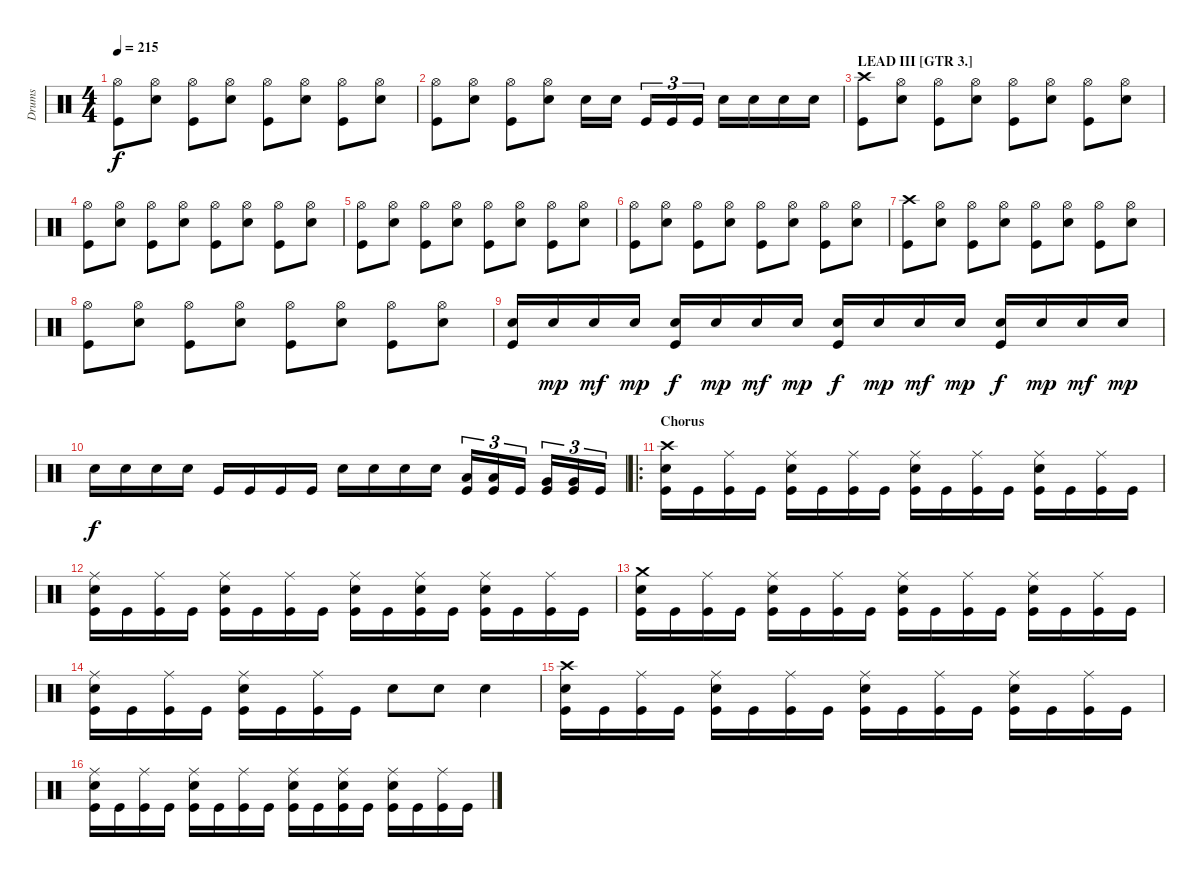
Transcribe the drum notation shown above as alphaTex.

\track ("Drums" "Drums") {instrument percussion}
\staff {score}
\articulation defaults
\ts (4 4)
\tempo 215
\clef neutral
\ks c
("Hi-Hat (open)" "Kick (hit)").8{dy f} ("Hi-Hat (open)" "Electric Snare (hit)").8 ("Hi-Hat (open)" "Kick (hit)").8 ("Hi-Hat (open)" "Electric Snare (hit)").8 ("Hi-Hat (open)" "Kick (hit)").8 ("Hi-Hat (open)" "Electric Snare (hit)").8 ("Hi-Hat (open)" "Kick (hit)").8 ("Hi-Hat (open)" "Electric Snare (hit)").8 |
("Hi-Hat (open)" "Kick (hit)").8 ("Hi-Hat (open)" "Electric Snare (hit)").8 ("Hi-Hat (open)" "Kick (hit)").8 ("Hi-Hat (open)" "Electric Snare (hit)").8 "Electric Snare (hit)".16 "Electric Snare (hit)".16 "Kick (hit)".16{tu (3 2)} "Kick (hit)".16{tu (3 2)} "Kick (hit)".16{tu (3 2)} "Electric Snare (hit)".16 "Electric Snare (hit)".16 "Electric Snare (hit)".16 "Electric Snare (hit)".16 |
\section ("" "LEAD III [GTR 3.]")
("Crash high (hit)" "Kick (hit)").8 ("Hi-Hat (open)" "Electric Snare (hit)").8 ("Hi-Hat (open)" "Kick (hit)").8 ("Hi-Hat (open)" "Electric Snare (hit)").8 ("Hi-Hat (open)" "Kick (hit)").8 ("Hi-Hat (open)" "Electric Snare (hit)").8 ("Hi-Hat (open)" "Kick (hit)").8 ("Hi-Hat (open)" "Electric Snare (hit)").8 |
("Hi-Hat (open)" "Kick (hit)").8 ("Hi-Hat (open)" "Electric Snare (hit)").8 ("Hi-Hat (open)" "Kick (hit)").8 ("Hi-Hat (open)" "Electric Snare (hit)").8 ("Hi-Hat (open)" "Kick (hit)").8 ("Hi-Hat (open)" "Electric Snare (hit)").8 ("Hi-Hat (open)" "Kick (hit)").8 ("Hi-Hat (open)" "Electric Snare (hit)").8 |
("Hi-Hat (open)" "Kick (hit)").8 ("Hi-Hat (open)" "Electric Snare (hit)").8 ("Hi-Hat (open)" "Kick (hit)").8 ("Hi-Hat (open)" "Electric Snare (hit)").8 ("Hi-Hat (open)" "Kick (hit)").8 ("Hi-Hat (open)" "Electric Snare (hit)").8 ("Hi-Hat (open)" "Kick (hit)").8 ("Hi-Hat (open)" "Electric Snare (hit)").8 |
("Hi-Hat (open)" "Kick (hit)").8 ("Hi-Hat (open)" "Electric Snare (hit)").8 ("Hi-Hat (open)" "Kick (hit)").8 ("Hi-Hat (open)" "Electric Snare (hit)").8 ("Hi-Hat (open)" "Kick (hit)").8 ("Hi-Hat (open)" "Electric Snare (hit)").8 ("Hi-Hat (open)" "Kick (hit)").8 ("Hi-Hat (open)" "Electric Snare (hit)").8 |
("Crash high (hit)" "Kick (hit)").8 ("Hi-Hat (open)" "Electric Snare (hit)").8 ("Hi-Hat (open)" "Kick (hit)").8 ("Hi-Hat (open)" "Electric Snare (hit)").8 ("Hi-Hat (open)" "Kick (hit)").8 ("Hi-Hat (open)" "Electric Snare (hit)").8 ("Hi-Hat (open)" "Kick (hit)").8 ("Hi-Hat (open)" "Electric Snare (hit)").8 |
("Hi-Hat (open)" "Kick (hit)").8 ("Hi-Hat (open)" "Electric Snare (hit)").8 ("Hi-Hat (open)" "Kick (hit)").8 ("Hi-Hat (open)" "Electric Snare (hit)").8 ("Hi-Hat (open)" "Kick (hit)").8 ("Hi-Hat (open)" "Electric Snare (hit)").8 ("Hi-Hat (open)" "Kick (hit)").8 ("Hi-Hat (open)" "Electric Snare (hit)").8 |
("Electric Snare (hit)" "Kick (hit)").16 "Electric Snare (hit)".16{dy mp} "Electric Snare (hit)".16{dy mf} "Electric Snare (hit)".16{dy mp} ("Electric Snare (hit)" "Kick (hit)").16{dy f} "Electric Snare (hit)".16{dy mp} "Electric Snare (hit)".16{dy mf} "Electric Snare (hit)".16{dy mp} ("Electric Snare (hit)" "Kick (hit)").16{dy f} "Electric Snare (hit)".16{dy mp} "Electric Snare (hit)".16{dy mf} "Electric Snare (hit)".16{dy mp} ("Electric Snare (hit)" "Kick (hit)").16{dy f} "Electric Snare (hit)".16{dy mp} "Electric Snare (hit)".16{dy mf} "Electric Snare (hit)".16{dy mp} |
"Electric Snare (hit)".16{dy f} "Electric Snare (hit)".16 "Electric Snare (hit)".16 "Electric Snare (hit)".16 "Kick (hit)".16 "Kick (hit)".16 "Kick (hit)".16 "Kick (hit)".16 "Electric Snare (hit)".16 "Electric Snare (hit)".16 "Electric Snare (hit)".16 "Electric Snare (hit)".16 ("Low Tom (hit)" "Kick (hit)").16{tu (3 2)} ("Low Tom (hit)" "Kick (hit)").16{tu (3 2)} "Kick (hit)".16{tu (3 2)} ("Very Low Tom (hit)" "Kick (hit)").16{tu (3 2)} ("Very Low Tom (hit)" "Kick (hit)").16{tu (3 2)} "Kick (hit)".16{tu (3 2)} |
\ro
\section ("" "Chorus")
("Crash high (hit)" "Electric Snare (hit)" "Kick (hit)").16 "Kick (hit)".16 ("Ride (middle)" "Kick (hit)").16 "Kick (hit)".16 ("Ride (middle)" "Electric Snare (hit)" "Kick (hit)").16 "Kick (hit)".16 ("Ride (middle)" "Kick (hit)").16 "Kick (hit)".16 ("Ride (middle)" "Electric Snare (hit)" "Kick (hit)").16 "Kick (hit)".16 ("Ride (middle)" "Kick (hit)").16 "Kick (hit)".16 ("Ride (middle)" "Electric Snare (hit)" "Kick (hit)").16 "Kick (hit)".16 ("Ride (middle)" "Kick (hit)").16 "Kick (hit)".16 |
("Ride (middle)" "Electric Snare (hit)" "Kick (hit)").16 "Kick (hit)".16 ("Ride (middle)" "Kick (hit)").16 "Kick (hit)".16 ("Ride (middle)" "Electric Snare (hit)" "Kick (hit)").16 "Kick (hit)".16 ("Ride (middle)" "Kick (hit)").16 "Kick (hit)".16 ("Ride (middle)" "Electric Snare (hit)" "Kick (hit)").16 "Kick (hit)".16 ("Ride (middle)" "Electric Snare (hit)" "Kick (hit)").16 "Kick (hit)".16 ("Ride (middle)" "Electric Snare (hit)" "Kick (hit)").16 "Kick (hit)".16 ("Ride (middle)" "Kick (hit)").16 "Kick (hit)".16 |
("Crash medium (hit)" "Electric Snare (hit)" "Kick (hit)").16 "Kick (hit)".16 ("Ride (middle)" "Kick (hit)").16 "Kick (hit)".16 ("Ride (middle)" "Electric Snare (hit)" "Kick (hit)").16 "Kick (hit)".16 ("Ride (middle)" "Kick (hit)").16 "Kick (hit)".16 ("Ride (middle)" "Electric Snare (hit)" "Kick (hit)").16 "Kick (hit)".16 ("Ride (middle)" "Kick (hit)").16 "Kick (hit)".16 ("Ride (middle)" "Electric Snare (hit)" "Kick (hit)").16 "Kick (hit)".16 ("Ride (middle)" "Kick (hit)").16 "Kick (hit)".16 |
("Ride (middle)" "Electric Snare (hit)" "Kick (hit)").16 "Kick (hit)".16 ("Ride (middle)" "Kick (hit)").16 "Kick (hit)".16 ("Ride (middle)" "Electric Snare (hit)" "Kick (hit)").16 "Kick (hit)".16 ("Ride (middle)" "Kick (hit)").16 "Kick (hit)".16 "Electric Snare (hit)".8 "Electric Snare (hit)".8 "Electric Snare (hit)".4 |
("Crash high (hit)" "Electric Snare (hit)" "Kick (hit)").16 "Kick (hit)".16 ("Ride (middle)" "Kick (hit)").16 "Kick (hit)".16 ("Ride (middle)" "Electric Snare (hit)" "Kick (hit)").16 "Kick (hit)".16 ("Ride (middle)" "Kick (hit)").16 "Kick (hit)".16 ("Ride (middle)" "Electric Snare (hit)" "Kick (hit)").16 "Kick (hit)".16 ("Ride (middle)" "Kick (hit)").16 "Kick (hit)".16 ("Ride (middle)" "Electric Snare (hit)" "Kick (hit)").16 "Kick (hit)".16 ("Ride (middle)" "Kick (hit)").16 "Kick (hit)".16 |
("Ride (middle)" "Electric Snare (hit)" "Kick (hit)").16 "Kick (hit)".16 ("Ride (middle)" "Kick (hit)").16 "Kick (hit)".16 ("Ride (middle)" "Electric Snare (hit)" "Kick (hit)").16 "Kick (hit)".16 ("Ride (middle)" "Kick (hit)").16 "Kick (hit)".16 ("Ride (middle)" "Electric Snare (hit)" "Kick (hit)").16 "Kick (hit)".16 ("Ride (middle)" "Electric Snare (hit)" "Kick (hit)").16 "Kick (hit)".16 ("Ride (middle)" "Electric Snare (hit)" "Kick (hit)").16 "Kick (hit)".16 ("Ride (middle)" "Kick (hit)").16 "Kick (hit)".16
